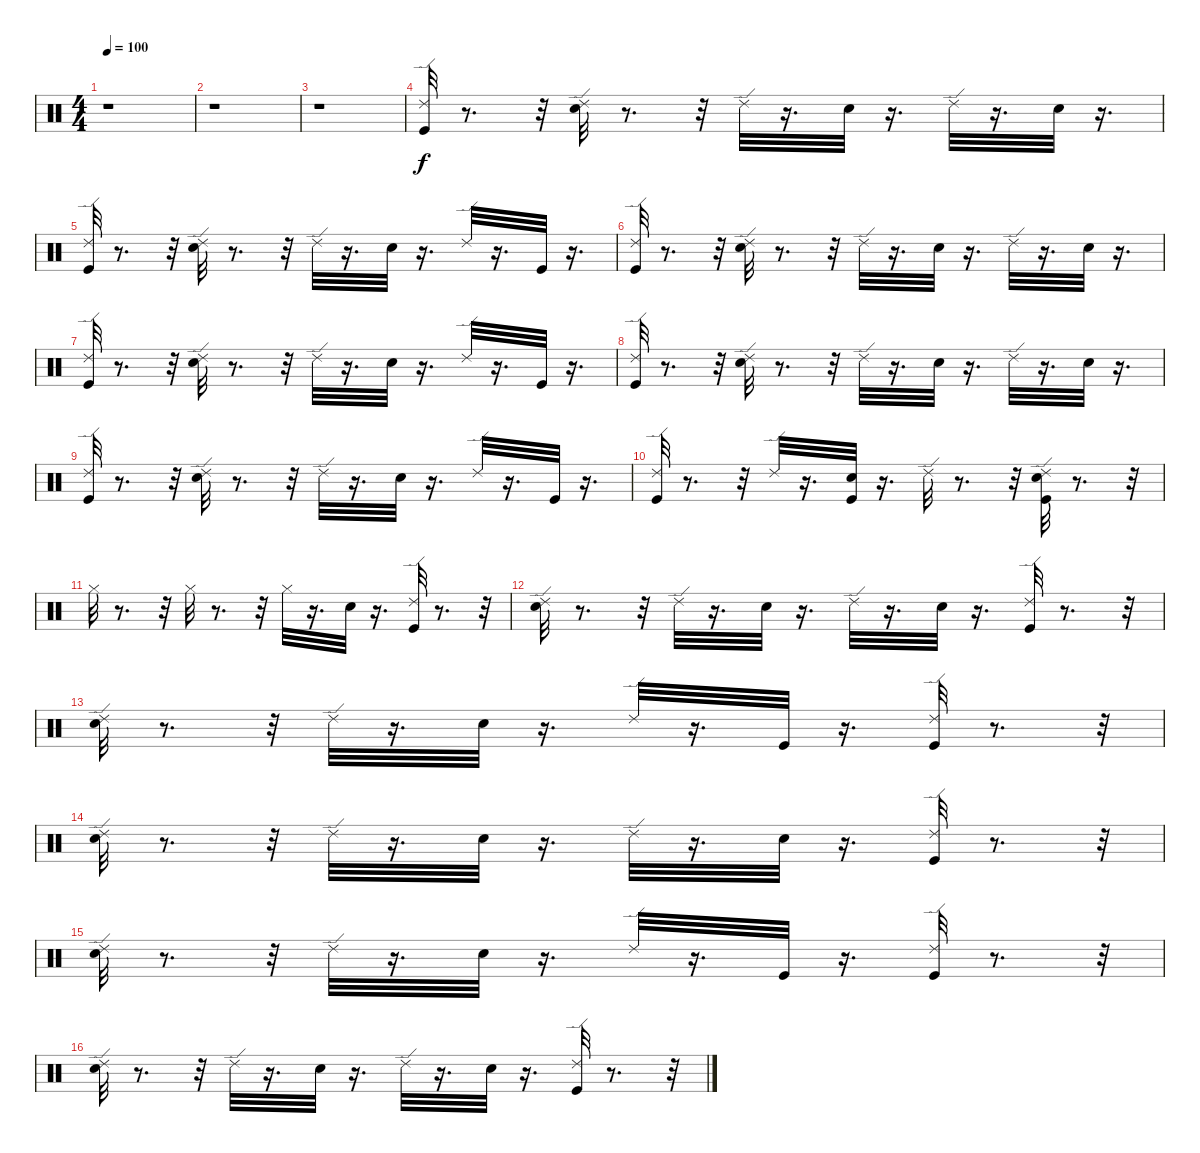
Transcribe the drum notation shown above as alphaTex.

\track "" {instrument percussion}
\staff {score}
\articulation defaults
\ts (4 4)
\tempo 100
\clef neutral
\ks c
r.1{dy f} |
r.1 |
r.1 |
("Ride (edge) 2" "Kick (hit)").32 r.8{d} r.32 ("Snare (hit) 2" "Ride (edge) 2").32 r.8{d} r.32 "Ride (edge) 2".32 r.16{d} "Snare (hit) 2".32 r.16{d} "Ride (edge) 2".32 r.16{d} "Snare (hit) 2".32 r.16{d} |
("Kick (hit)" "Ride (edge) 2").32 r.8{d} r.32 ("Ride (edge) 2" "Snare (hit) 2").32 r.8{d} r.32 "Ride (edge) 2".32 r.16{d} "Snare (hit) 2".32 r.16{d} "Ride (edge) 2".32 r.16{d} "Kick (hit)".32 r.16{d} |
("Kick (hit)" "Ride (edge) 2").32 r.8{d} r.32 ("Ride (edge) 2" "Snare (hit) 2").32 r.8{d} r.32 "Ride (edge) 2".32 r.16{d} "Snare (hit) 2".32 r.16{d} "Ride (edge) 2".32 r.16{d} "Snare (hit) 2".32 r.16{d} |
("Ride (edge) 2" "Kick (hit)").32 r.8{d} r.32 ("Snare (hit) 2" "Ride (edge) 2").32 r.8{d} r.32 "Ride (edge) 2".32 r.16{d} "Snare (hit) 2".32 r.16{d} "Ride (edge) 2".32 r.16{d} "Kick (hit)".32 r.16{d} |
("Ride (edge) 2" "Kick (hit)").32 r.8{d} r.32 ("Snare (hit) 2" "Ride (edge) 2").32 r.8{d} r.32 "Ride (edge) 2".32 r.16{d} "Snare (hit) 2".32 r.16{d} "Ride (edge) 2".32 r.16{d} "Snare (hit) 2".32 r.16{d} |
("Kick (hit)" "Ride (edge) 2").32 r.8{d} r.32 ("Ride (edge) 2" "Snare (hit) 2").32 r.8{d} r.32 "Ride (edge) 2".32 r.16{d} "Snare (hit) 2".32 r.16{d} "Ride (edge) 2".32 r.16{d} "Kick (hit)".32 r.16{d} |
("Ride (edge) 2" "Kick (hit)").32 r.8{d} r.32 "Ride (edge) 2".32 r.16{d} ("Kick (hit)" "Snare (hit) 2").32 r.16{d} "Ride (edge) 2".32 r.8{d} r.32 ("Snare (hit) 2" "Kick (hit)" "Ride (edge) 2").32 r.8{d} r.32 |
"Hi-Hat (closed)".32 r.8{d} r.32 "Hi-Hat (closed)".32 r.8{d} r.32 "Hi-Hat (closed)".32 r.16{d} "Snare (hit) 2".32 r.16{d} ("Ride (edge) 2" "Kick (hit)").32 r.8{d} r.32 |
("Ride (edge) 2" "Snare (hit) 2").32 r.8{d} r.32 "Ride (edge) 2".32 r.16{d} "Snare (hit) 2".32 r.16{d} "Ride (edge) 2".32 r.16{d} "Snare (hit) 2".32 r.16{d} ("Ride (edge) 2" "Kick (hit)").32 r.8{d} r.32 |
("Snare (hit) 2" "Ride (edge) 2").32 r.8{d} r.32 "Ride (edge) 2".32 r.16{d} "Snare (hit) 2".32 r.16{d} "Ride (edge) 2".32 r.16{d} "Kick (hit)".32 r.16{d} ("Ride (edge) 2" "Kick (hit)").32 r.8{d} r.32 |
("Ride (edge) 2" "Snare (hit) 2").32 r.8{d} r.32 "Ride (edge) 2".32 r.16{d} "Snare (hit) 2".32 r.16{d} "Ride (edge) 2".32 r.16{d} "Snare (hit) 2".32 r.16{d} ("Ride (edge) 2" "Kick (hit)").32 r.8{d} r.32 |
("Snare (hit) 2" "Ride (edge) 2").32 r.8{d} r.32 "Ride (edge) 2".32 r.16{d} "Snare (hit) 2".32 r.16{d} "Ride (edge) 2".32 r.16{d} "Kick (hit)".32 r.16{d} ("Ride (edge) 2" "Kick (hit)").32 r.8{d} r.32 |
("Snare (hit) 2" "Ride (edge) 2").32 r.8{d} r.32 "Ride (edge) 2".32 r.16{d} "Snare (hit) 2".32 r.16{d} "Ride (edge) 2".32 r.16{d} "Snare (hit) 2".32 r.16{d} ("Kick (hit)" "Ride (edge) 2").32 r.8{d} r.32
